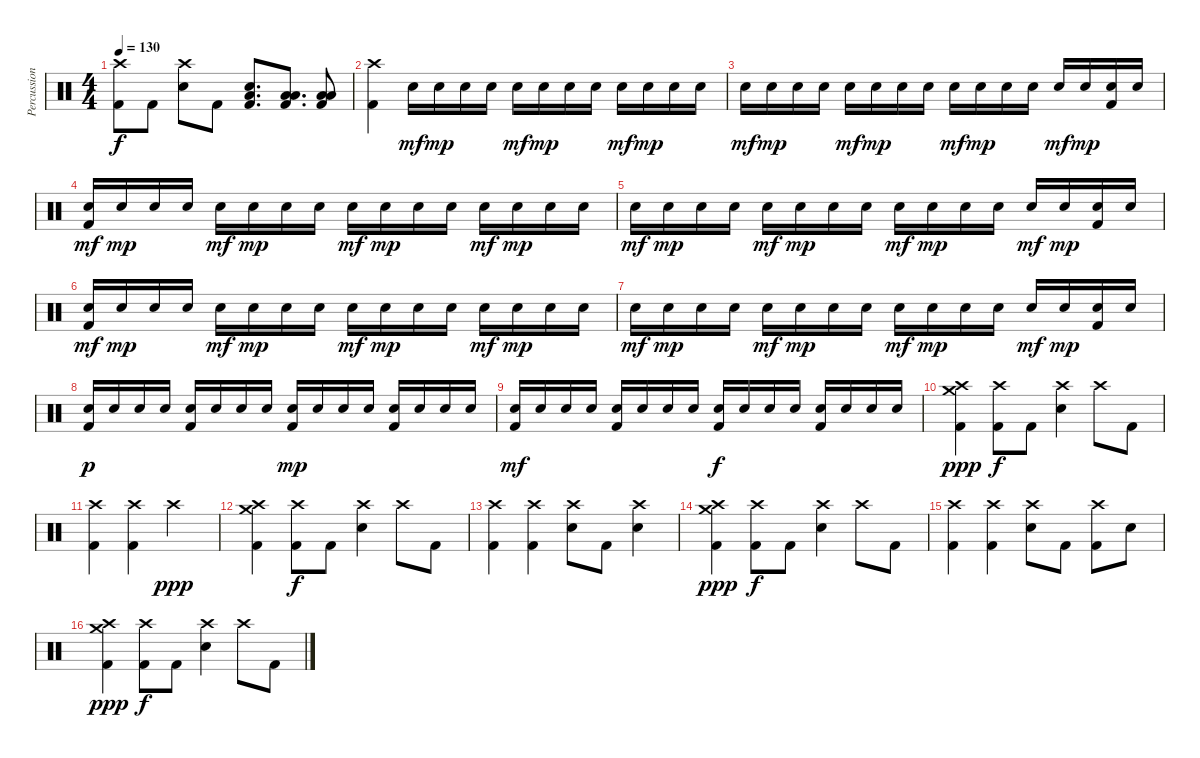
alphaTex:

\track ("Percussion" "Percussion") {instrument percussion}
\staff {score}
\articulation defaults
\ts (4 4)
\tempo 130
\clef neutral
\ks c
("Crash high (hit)" "Kick (hit) 2").8{dy f} "Kick (hit) 2".8 ("Crash high (hit)" "Electric Snare (hit)").8 "Kick (hit) 2".8 ("Low Floor Tom (hit)" "Electric Snare (hit)" "Kick (hit) 2").8{d} ("Low Tom (hit)" "Low Floor Tom (hit)" "Kick (hit) 2").8{d} ("Low Tom (hit)" "Low Floor Tom (hit)" "Kick (hit) 2").8 |
("Crash high (hit)" "Kick (hit) 2").4 "Electric Snare (hit)".16{dy mf} "Electric Snare (hit)".16{dy mp} "Electric Snare (hit)".16 "Electric Snare (hit)".16 "Electric Snare (hit)".16{dy mf} "Electric Snare (hit)".16{dy mp} "Electric Snare (hit)".16 "Electric Snare (hit)".16 "Electric Snare (hit)".16{dy mf} "Electric Snare (hit)".16{dy mp} "Electric Snare (hit)".16 "Electric Snare (hit)".16 |
"Electric Snare (hit)".16{dy mf} "Electric Snare (hit)".16{dy mp} "Electric Snare (hit)".16 "Electric Snare (hit)".16 "Electric Snare (hit)".16{dy mf} "Electric Snare (hit)".16{dy mp} "Electric Snare (hit)".16 "Electric Snare (hit)".16 "Electric Snare (hit)".16{dy mf} "Electric Snare (hit)".16{dy mp} "Electric Snare (hit)".16 "Electric Snare (hit)".16 "Electric Snare (hit)".16{dy mf} "Electric Snare (hit)".16{dy mp} ("Electric Snare (hit)" "Kick (hit) 2").16 "Electric Snare (hit)".16 |
("Electric Snare (hit)" "Kick (hit) 2").16{dy mf} "Electric Snare (hit)".16{dy mp} "Electric Snare (hit)".16 "Electric Snare (hit)".16 "Electric Snare (hit)".16{dy mf} "Electric Snare (hit)".16{dy mp} "Electric Snare (hit)".16 "Electric Snare (hit)".16 "Electric Snare (hit)".16{dy mf} "Electric Snare (hit)".16{dy mp} "Electric Snare (hit)".16 "Electric Snare (hit)".16 "Electric Snare (hit)".16{dy mf} "Electric Snare (hit)".16{dy mp} "Electric Snare (hit)".16 "Electric Snare (hit)".16 |
"Electric Snare (hit)".16{dy mf} "Electric Snare (hit)".16{dy mp} "Electric Snare (hit)".16 "Electric Snare (hit)".16 "Electric Snare (hit)".16{dy mf} "Electric Snare (hit)".16{dy mp} "Electric Snare (hit)".16 "Electric Snare (hit)".16 "Electric Snare (hit)".16{dy mf} "Electric Snare (hit)".16{dy mp} "Electric Snare (hit)".16 "Electric Snare (hit)".16 "Electric Snare (hit)".16{dy mf} "Electric Snare (hit)".16{dy mp} ("Electric Snare (hit)" "Kick (hit) 2").16 "Electric Snare (hit)".16 |
("Electric Snare (hit)" "Kick (hit) 2").16{dy mf} "Electric Snare (hit)".16{dy mp} "Electric Snare (hit)".16 "Electric Snare (hit)".16 "Electric Snare (hit)".16{dy mf} "Electric Snare (hit)".16{dy mp} "Electric Snare (hit)".16 "Electric Snare (hit)".16 "Electric Snare (hit)".16{dy mf} "Electric Snare (hit)".16{dy mp} "Electric Snare (hit)".16 "Electric Snare (hit)".16 "Electric Snare (hit)".16{dy mf} "Electric Snare (hit)".16{dy mp} "Electric Snare (hit)".16 "Electric Snare (hit)".16 |
"Electric Snare (hit)".16{dy mf} "Electric Snare (hit)".16{dy mp} "Electric Snare (hit)".16 "Electric Snare (hit)".16 "Electric Snare (hit)".16{dy mf} "Electric Snare (hit)".16{dy mp} "Electric Snare (hit)".16 "Electric Snare (hit)".16 "Electric Snare (hit)".16{dy mf} "Electric Snare (hit)".16{dy mp} "Electric Snare (hit)".16 "Electric Snare (hit)".16 "Electric Snare (hit)".16{dy mf} "Electric Snare (hit)".16{dy mp} ("Electric Snare (hit)" "Kick (hit) 2").16 "Electric Snare (hit)".16 |
("Electric Snare (hit)" "Kick (hit) 2").16{dy p} "Electric Snare (hit)".16 "Electric Snare (hit)".16 "Electric Snare (hit)".16 ("Electric Snare (hit)" "Kick (hit) 2").16 "Electric Snare (hit)".16 "Electric Snare (hit)".16 "Electric Snare (hit)".16 ("Electric Snare (hit)" "Kick (hit) 2").16{dy mp} "Electric Snare (hit)".16 "Electric Snare (hit)".16 "Electric Snare (hit)".16 ("Electric Snare (hit)" "Kick (hit) 2").16 "Electric Snare (hit)".16 "Electric Snare (hit)".16 "Electric Snare (hit)".16 |
("Electric Snare (hit)" "Kick (hit) 2").16{dy mf} "Electric Snare (hit)".16 "Electric Snare (hit)".16 "Electric Snare (hit)".16 ("Electric Snare (hit)" "Kick (hit) 2").16 "Electric Snare (hit)".16 "Electric Snare (hit)".16 "Electric Snare (hit)".16 ("Electric Snare (hit)" "Kick (hit) 2").16{dy f} "Electric Snare (hit)".16 "Electric Snare (hit)".16 "Electric Snare (hit)".16 ("Electric Snare (hit)" "Kick (hit) 2").16 "Electric Snare (hit)".16 "Electric Snare (hit)".16 "Electric Snare (hit)".16 |
("Crash high (hit)" "Crash medium (hit)" "Kick (hit) 2").4{dy ppp} ("Crash high (hit)" "Kick (hit) 2").8{dy f} "Kick (hit) 2".8 ("Crash high (hit)" "Electric Snare (hit)").4 "Crash high (hit)".8 "Kick (hit) 2".8 |
("Crash high (hit)" "Kick (hit) 2").4 ("Crash high (hit)" "Kick (hit) 2").4 "Crash high (hit)".2{dy ppp} |
("Crash high (hit)" "Crash medium (hit)" "Kick (hit) 2").4 ("Crash high (hit)" "Kick (hit) 2").8{dy f} "Kick (hit) 2".8 ("Crash high (hit)" "Electric Snare (hit)").4 "Crash high (hit)".8 "Kick (hit) 2".8 |
("Crash high (hit)" "Kick (hit) 2").4 ("Crash high (hit)" "Kick (hit) 2").4 ("Crash high (hit)" "Electric Snare (hit)").8 "Kick (hit) 2".8 ("Crash high (hit)" "Electric Snare (hit)").4 |
("Crash high (hit)" "Crash medium (hit)" "Kick (hit) 2").4{dy ppp} ("Crash high (hit)" "Kick (hit) 2").8{dy f} "Kick (hit) 2".8 ("Crash high (hit)" "Electric Snare (hit)").4 "Crash high (hit)".8 "Kick (hit) 2".8 |
("Crash high (hit)" "Kick (hit) 2").4 ("Crash high (hit)" "Kick (hit) 2").4 ("Crash high (hit)" "Electric Snare (hit)").8 "Kick (hit) 2".8 ("Crash high (hit)" "Kick (hit) 2").8 "Electric Snare (hit)".8 |
("Crash high (hit)" "Crash medium (hit)" "Kick (hit) 2").4{dy ppp} ("Crash high (hit)" "Kick (hit) 2").8{dy f} "Kick (hit) 2".8 ("Crash high (hit)" "Electric Snare (hit)").4 "Crash high (hit)".8 "Kick (hit) 2".8
